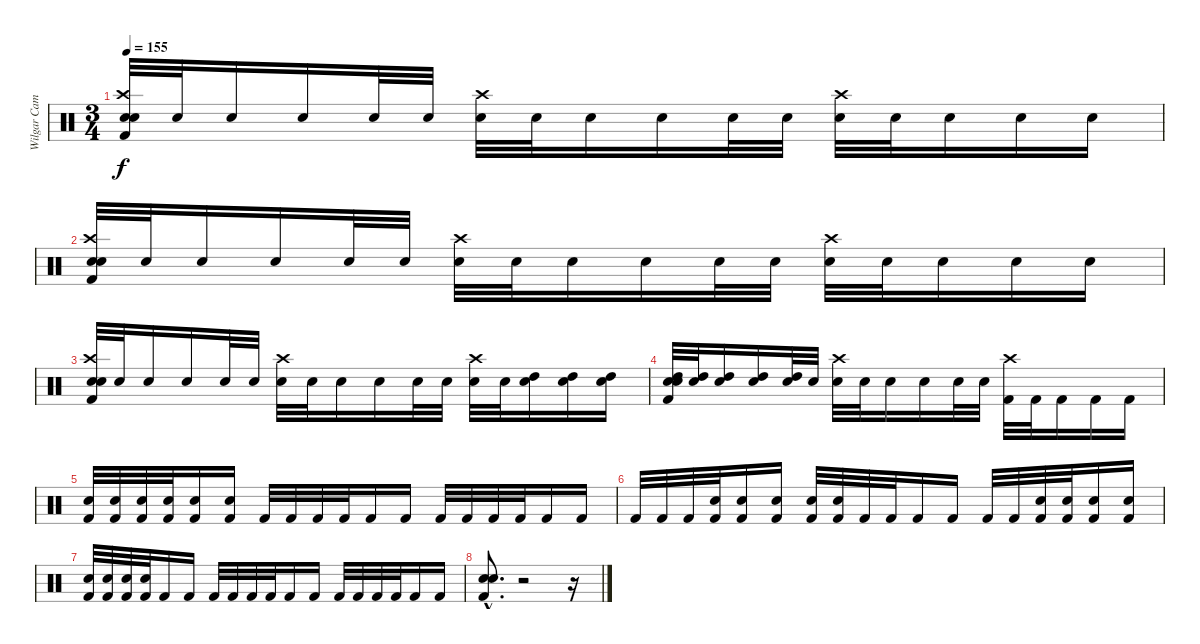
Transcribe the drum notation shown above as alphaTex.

\track ("Wilgar Campbell" "Wilgar Cam") {instrument percussion}
\staff {score}
\articulation defaults
\ts (3 4)
\tempo 155
\clef neutral
\ks c
("Kick (hit) 2" "Snare (hit) 2" "Crash high (hit)" "Electric Snare (hit)").32{dy f} "Electric Snare (hit)".32 "Electric Snare (hit)".16 "Electric Snare (hit)".16 "Electric Snare (hit)".32 "Electric Snare (hit)".32 ("Crash high (hit)" "Electric Snare (hit)").32 "Electric Snare (hit)".32 "Electric Snare (hit)".16 "Electric Snare (hit)".16 "Electric Snare (hit)".32 "Electric Snare (hit)".32 ("Crash high (hit)" "Electric Snare (hit)").32 "Electric Snare (hit)".32 "Electric Snare (hit)".16 "Electric Snare (hit)".16 "Electric Snare (hit)".16 |
("Kick (hit) 2" "Snare (hit) 2" "Crash high (hit)" "Electric Snare (hit)").32 "Electric Snare (hit)".32 "Electric Snare (hit)".16 "Electric Snare (hit)".16 "Electric Snare (hit)".32 "Electric Snare (hit)".32 ("Crash high (hit)" "Electric Snare (hit)").32 "Electric Snare (hit)".32 "Electric Snare (hit)".16 "Electric Snare (hit)".16 "Electric Snare (hit)".32 "Electric Snare (hit)".32 ("Crash high (hit)" "Electric Snare (hit)").32 "Electric Snare (hit)".32 "Electric Snare (hit)".16 "Electric Snare (hit)".16 "Electric Snare (hit)".16 |
("Kick (hit) 2" "Snare (hit) 2" "Crash high (hit)" "Electric Snare (hit)").32 "Electric Snare (hit)".32 "Electric Snare (hit)".16 "Snare (hit) 2".16 "Snare (hit) 2".32 "Snare (hit) 2".32 ("Crash high (hit)" "Snare (hit) 2").32 "Snare (hit) 2".32 "Snare (hit) 2".16 "Snare (hit) 2".16 "Snare (hit) 2".32 "Electric Snare (hit)".32 ("Crash high (hit)" "Electric Snare (hit)").32 "Electric Snare (hit)".32 ("High Tom (hit)" "Electric Snare (hit)").16 ("High Tom (hit)" "Electric Snare (hit)").16 ("High Tom (hit)" "Electric Snare (hit)").16 |
("Kick (hit) 2" "Snare (hit) 2" "High Tom (hit)" "Electric Snare (hit)").32 ("High Tom (hit)" "Electric Snare (hit)").32 ("High Tom (hit)" "Electric Snare (hit)").16 ("High Tom (hit)" "Electric Snare (hit)").16 ("High Tom (hit)" "Electric Snare (hit)").32 "Electric Snare (hit)".32 ("Crash high (hit)" "Electric Snare (hit)").32 "Snare (hit) 2".32 "Snare (hit) 2".16 "Snare (hit) 2".16 "Snare (hit) 2".32 "Electric Snare (hit)".32 ("Crash high (hit)" "Kick (hit) 2").32 "Kick (hit) 2".32 "Kick (hit) 2".16 "Kick (hit) 2".16 "Kick (hit) 2".16 |
("Electric Snare (hit)" "Kick (hit) 2").32 ("Electric Snare (hit)" "Kick (hit) 2").32 ("Electric Snare (hit)" "Kick (hit) 2").32 ("Electric Snare (hit)" "Kick (hit) 2").32 ("Electric Snare (hit)" "Kick (hit) 2").16 ("Electric Snare (hit)" "Kick (hit) 2").16 "Kick (hit) 2".32 "Kick (hit) 2".32 "Kick (hit) 2".32 "Kick (hit) 2".32 "Kick (hit) 2".16 "Kick (hit) 2".16 "Kick (hit) 2".32 "Kick (hit) 2".32 "Kick (hit) 2".32 "Kick (hit) 2".32 "Kick (hit) 2".16 "Kick (hit) 2".16 |
"Kick (hit) 2".32 "Kick (hit) 2".32 "Kick (hit) 2".32 ("Snare (hit) 2" "Kick (hit) 2").32 ("Snare (hit) 2" "Kick (hit) 2").16 ("Snare (hit) 2" "Kick (hit) 2").16 ("Snare (hit) 2" "Kick (hit) 2").32 ("Snare (hit) 2" "Kick (hit) 2").32 "Kick (hit) 2".32 "Kick (hit) 2".32 "Kick (hit) 2".16 "Kick (hit) 2".16 "Kick (hit) 2".32 "Kick (hit) 2".32 ("Electric Snare (hit)" "Kick (hit) 2").32 ("Electric Snare (hit)" "Kick (hit) 2").32 ("Electric Snare (hit)" "Kick (hit) 2").16 ("Electric Snare (hit)" "Kick (hit) 2").16 |
("Electric Snare (hit)" "Kick (hit) 2").32 ("Electric Snare (hit)" "Kick (hit) 2").32 ("Electric Snare (hit)" "Kick (hit) 2").32 ("Electric Snare (hit)" "Kick (hit) 2").32 "Kick (hit) 2".16 "Kick (hit) 2".16 "Kick (hit) 2".32 "Kick (hit) 2".32 "Kick (hit) 2".32 "Kick (hit) 2".32 "Kick (hit) 2".16 "Kick (hit) 2".16 "Kick (hit) 2".32 "Kick (hit) 2".32 "Kick (hit) 2".32 "Kick (hit) 2".32 "Kick (hit) 2".16 "Kick (hit) 2".16 |
("Snare (hit) 2"{hac} "Electric Snare (hit)"{hac} "Kick (hit) 2"{hac}).8{d} r.2 r.16
